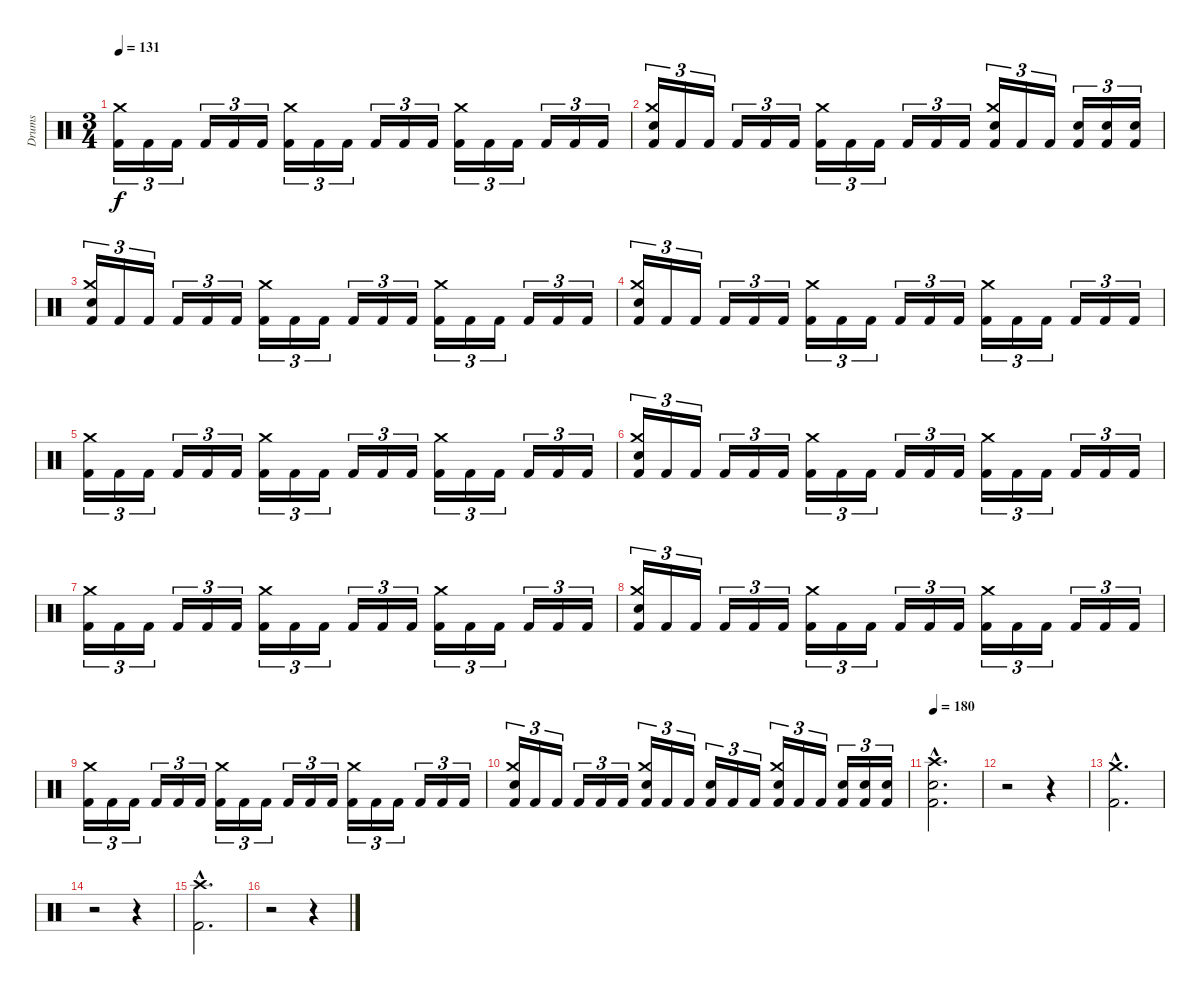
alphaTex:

\track ("Drums" "Drums") {instrument percussion}
\staff {score}
\articulation defaults
\ts (3 4)
\tempo 131
\clef neutral
\ks c
("Kick (hit) 2" "Crash medium (hit)").16{tu (3 2) dy f} "Kick (hit) 2".16{tu (3 2)} "Kick (hit) 2".16{tu (3 2)} "Kick (hit) 2".16{tu (3 2)} "Kick (hit) 2".16{tu (3 2)} "Kick (hit) 2".16{tu (3 2)} ("Kick (hit) 2" "Crash medium (hit)").16{tu (3 2)} "Kick (hit) 2".16{tu (3 2)} "Kick (hit) 2".16{tu (3 2)} "Kick (hit) 2".16{tu (3 2)} "Kick (hit) 2".16{tu (3 2)} "Kick (hit) 2".16{tu (3 2)} ("Kick (hit) 2" "Crash medium (hit)").16{tu (3 2)} "Kick (hit) 2".16{tu (3 2)} "Kick (hit) 2".16{tu (3 2)} "Kick (hit) 2".16{tu (3 2)} "Kick (hit) 2".16{tu (3 2)} "Kick (hit) 2".16{tu (3 2)} |
("Kick (hit) 2" "Electric Snare (hit)" "Crash medium (hit)").16{tu (3 2)} "Kick (hit) 2".16{tu (3 2)} "Kick (hit) 2".16{tu (3 2)} "Kick (hit) 2".16{tu (3 2)} "Kick (hit) 2".16{tu (3 2)} "Kick (hit) 2".16{tu (3 2)} ("Kick (hit) 2" "Crash medium (hit)").16{tu (3 2)} "Kick (hit) 2".16{tu (3 2)} "Kick (hit) 2".16{tu (3 2)} "Kick (hit) 2".16{tu (3 2)} "Kick (hit) 2".16{tu (3 2)} "Kick (hit) 2".16{tu (3 2)} ("Kick (hit) 2" "Electric Snare (hit)" "Crash medium (hit)").16{tu (3 2)} "Kick (hit) 2".16{tu (3 2)} "Kick (hit) 2".16{tu (3 2)} ("Kick (hit) 2" "Electric Snare (hit)").16{tu (3 2)} ("Kick (hit) 2" "Electric Snare (hit)").16{tu (3 2)} ("Kick (hit) 2" "Electric Snare (hit)").16{tu (3 2)} |
("Kick (hit) 2" "Electric Snare (hit)" "Crash medium (hit)").16{tu (3 2)} "Kick (hit) 2".16{tu (3 2)} "Kick (hit) 2".16{tu (3 2)} "Kick (hit) 2".16{tu (3 2)} "Kick (hit) 2".16{tu (3 2)} "Kick (hit) 2".16{tu (3 2)} ("Kick (hit) 2" "Crash medium (hit)").16{tu (3 2)} "Kick (hit) 2".16{tu (3 2)} "Kick (hit) 2".16{tu (3 2)} "Kick (hit) 2".16{tu (3 2)} "Kick (hit) 2".16{tu (3 2)} "Kick (hit) 2".16{tu (3 2)} ("Kick (hit) 2" "Crash medium (hit)").16{tu (3 2)} "Kick (hit) 2".16{tu (3 2)} "Kick (hit) 2".16{tu (3 2)} "Kick (hit) 2".16{tu (3 2)} "Kick (hit) 2".16{tu (3 2)} "Kick (hit) 2".16{tu (3 2)} |
("Kick (hit) 2" "Electric Snare (hit)" "Crash medium (hit)").16{tu (3 2)} "Kick (hit) 2".16{tu (3 2)} "Kick (hit) 2".16{tu (3 2)} "Kick (hit) 2".16{tu (3 2)} "Kick (hit) 2".16{tu (3 2)} "Kick (hit) 2".16{tu (3 2)} ("Kick (hit) 2" "Crash medium (hit)").16{tu (3 2)} "Kick (hit) 2".16{tu (3 2)} "Kick (hit) 2".16{tu (3 2)} "Kick (hit) 2".16{tu (3 2)} "Kick (hit) 2".16{tu (3 2)} "Kick (hit) 2".16{tu (3 2)} ("Kick (hit) 2" "Crash medium (hit)").16{tu (3 2)} "Kick (hit) 2".16{tu (3 2)} "Kick (hit) 2".16{tu (3 2)} "Kick (hit) 2".16{tu (3 2)} "Kick (hit) 2".16{tu (3 2)} "Kick (hit) 2".16{tu (3 2)} |
("Kick (hit) 2" "Crash medium (hit)").16{tu (3 2)} "Kick (hit) 2".16{tu (3 2)} "Kick (hit) 2".16{tu (3 2)} "Kick (hit) 2".16{tu (3 2)} "Kick (hit) 2".16{tu (3 2)} "Kick (hit) 2".16{tu (3 2)} ("Kick (hit) 2" "Crash medium (hit)").16{tu (3 2)} "Kick (hit) 2".16{tu (3 2)} "Kick (hit) 2".16{tu (3 2)} "Kick (hit) 2".16{tu (3 2)} "Kick (hit) 2".16{tu (3 2)} "Kick (hit) 2".16{tu (3 2)} ("Kick (hit) 2" "Crash medium (hit)").16{tu (3 2)} "Kick (hit) 2".16{tu (3 2)} "Kick (hit) 2".16{tu (3 2)} "Kick (hit) 2".16{tu (3 2)} "Kick (hit) 2".16{tu (3 2)} "Kick (hit) 2".16{tu (3 2)} |
("Kick (hit) 2" "Electric Snare (hit)" "Crash medium (hit)").16{tu (3 2)} "Kick (hit) 2".16{tu (3 2)} "Kick (hit) 2".16{tu (3 2)} "Kick (hit) 2".16{tu (3 2)} "Kick (hit) 2".16{tu (3 2)} "Kick (hit) 2".16{tu (3 2)} ("Kick (hit) 2" "Crash medium (hit)").16{tu (3 2)} "Kick (hit) 2".16{tu (3 2)} "Kick (hit) 2".16{tu (3 2)} "Kick (hit) 2".16{tu (3 2)} "Kick (hit) 2".16{tu (3 2)} "Kick (hit) 2".16{tu (3 2)} ("Kick (hit) 2" "Crash medium (hit)").16{tu (3 2)} "Kick (hit) 2".16{tu (3 2)} "Kick (hit) 2".16{tu (3 2)} "Kick (hit) 2".16{tu (3 2)} "Kick (hit) 2".16{tu (3 2)} "Kick (hit) 2".16{tu (3 2)} |
("Kick (hit) 2" "Crash medium (hit)").16{tu (3 2)} "Kick (hit) 2".16{tu (3 2)} "Kick (hit) 2".16{tu (3 2)} "Kick (hit) 2".16{tu (3 2)} "Kick (hit) 2".16{tu (3 2)} "Kick (hit) 2".16{tu (3 2)} ("Kick (hit) 2" "Crash medium (hit)").16{tu (3 2)} "Kick (hit) 2".16{tu (3 2)} "Kick (hit) 2".16{tu (3 2)} "Kick (hit) 2".16{tu (3 2)} "Kick (hit) 2".16{tu (3 2)} "Kick (hit) 2".16{tu (3 2)} ("Kick (hit) 2" "Crash medium (hit)").16{tu (3 2)} "Kick (hit) 2".16{tu (3 2)} "Kick (hit) 2".16{tu (3 2)} "Kick (hit) 2".16{tu (3 2)} "Kick (hit) 2".16{tu (3 2)} "Kick (hit) 2".16{tu (3 2)} |
("Kick (hit) 2" "Electric Snare (hit)" "Crash medium (hit)").16{tu (3 2)} "Kick (hit) 2".16{tu (3 2)} "Kick (hit) 2".16{tu (3 2)} "Kick (hit) 2".16{tu (3 2)} "Kick (hit) 2".16{tu (3 2)} "Kick (hit) 2".16{tu (3 2)} ("Kick (hit) 2" "Crash medium (hit)").16{tu (3 2)} "Kick (hit) 2".16{tu (3 2)} "Kick (hit) 2".16{tu (3 2)} "Kick (hit) 2".16{tu (3 2)} "Kick (hit) 2".16{tu (3 2)} "Kick (hit) 2".16{tu (3 2)} ("Kick (hit) 2" "Crash medium (hit)").16{tu (3 2)} "Kick (hit) 2".16{tu (3 2)} "Kick (hit) 2".16{tu (3 2)} "Kick (hit) 2".16{tu (3 2)} "Kick (hit) 2".16{tu (3 2)} "Kick (hit) 2".16{tu (3 2)} |
("Kick (hit) 2" "Crash medium (hit)").16{tu (3 2)} "Kick (hit) 2".16{tu (3 2)} "Kick (hit) 2".16{tu (3 2)} "Kick (hit) 2".16{tu (3 2)} "Kick (hit) 2".16{tu (3 2)} "Kick (hit) 2".16{tu (3 2)} ("Kick (hit) 2" "Crash medium (hit)").16{tu (3 2)} "Kick (hit) 2".16{tu (3 2)} "Kick (hit) 2".16{tu (3 2)} "Kick (hit) 2".16{tu (3 2)} "Kick (hit) 2".16{tu (3 2)} "Kick (hit) 2".16{tu (3 2)} ("Kick (hit) 2" "Crash medium (hit)").16{tu (3 2)} "Kick (hit) 2".16{tu (3 2)} "Kick (hit) 2".16{tu (3 2)} "Kick (hit) 2".16{tu (3 2)} "Kick (hit) 2".16{tu (3 2)} "Kick (hit) 2".16{tu (3 2)} |
("Kick (hit) 2" "Electric Snare (hit)" "Crash medium (hit)").16{tu (3 2)} "Kick (hit) 2".16{tu (3 2)} "Kick (hit) 2".16{tu (3 2)} "Kick (hit) 2".16{tu (3 2)} "Kick (hit) 2".16{tu (3 2)} "Kick (hit) 2".16{tu (3 2)} ("Kick (hit) 2" "Electric Snare (hit)" "Crash medium (hit)").16{tu (3 2)} "Kick (hit) 2".16{tu (3 2)} "Kick (hit) 2".16{tu (3 2)} ("Kick (hit) 2" "Electric Snare (hit)").16{tu (3 2)} "Kick (hit) 2".16{tu (3 2)} "Kick (hit) 2".16{tu (3 2)} ("Kick (hit) 2" "Electric Snare (hit)" "Crash medium (hit)").16{tu (3 2)} "Kick (hit) 2".16{tu (3 2)} "Kick (hit) 2".16{tu (3 2)} ("Kick (hit) 2" "Electric Snare (hit)").16{tu (3 2)} ("Kick (hit) 2" "Electric Snare (hit)").16{tu (3 2)} ("Kick (hit) 2" "Electric Snare (hit)").16{tu (3 2)} |
\tempo 180
("Kick (hit) 2"{hac} "Electric Snare (hit)"{hac} "Crash high (hit)"{hac}).2{d} |
r.2 r.4 |
("Kick (hit) 2"{hac} "Crash medium (hit)"{hac}).2{d} |
r.2 r.4 |
("Kick (hit) 2"{hac} "Crash high (hit)"{hac}).2{d} |
r.2 r.4
